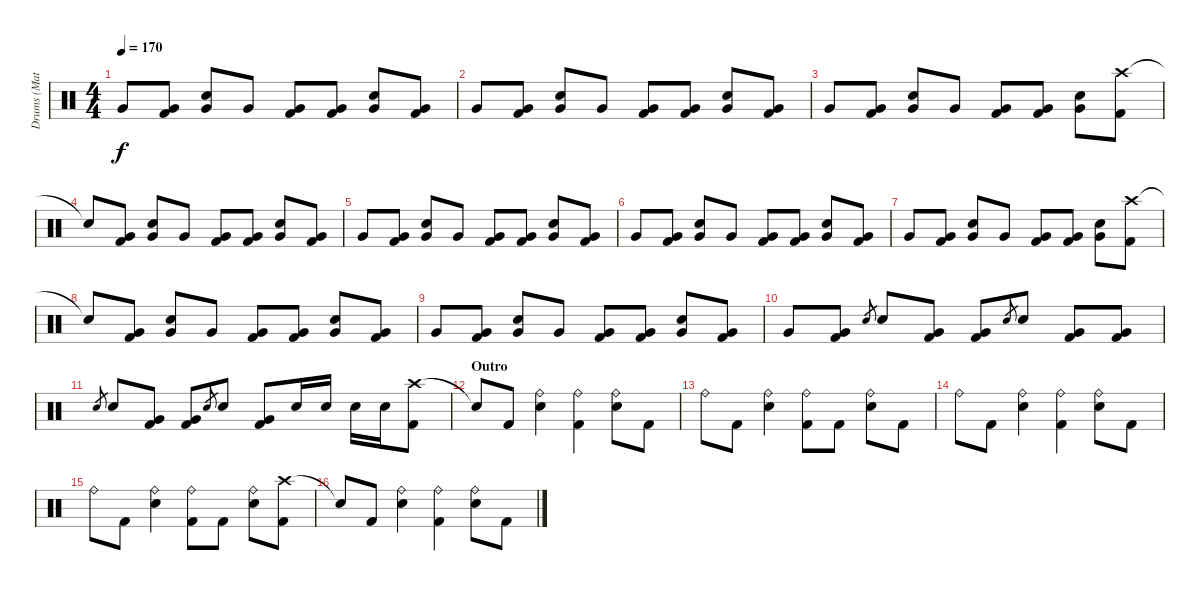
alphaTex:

\track ("Drums (Matt)" "Drums (Mat") {instrument percussion}
\staff {score}
\articulation defaults
\ts (4 4)
\tempo 170
\clef neutral
\ks c "Very Low Tom (hit)".8{dy f}
("Very Low Tom (hit)" "Kick (hit) 2").8 ("Very Low Tom (hit)" "Snare (hit) 2").8 "Very Low Tom (hit)".8 ("Very Low Tom (hit)" "Kick (hit) 2").8 ("Very Low Tom (hit)" "Kick (hit) 2").8 ("Very Low Tom (hit)" "Snare (hit) 2").8 ("Very Low Tom (hit)" "Kick (hit) 2").8 |
"Very Low Tom (hit)".8 ("Very Low Tom (hit)" "Kick (hit) 2").8 ("Very Low Tom (hit)" "Snare (hit) 2").8 "Very Low Tom (hit)".8 ("Very Low Tom (hit)" "Kick (hit) 2").8 ("Very Low Tom (hit)" "Kick (hit) 2").8 ("Very Low Tom (hit)" "Snare (hit) 2").8 ("Very Low Tom (hit)" "Kick (hit) 2").8 |
"Very Low Tom (hit)".8 ("Very Low Tom (hit)" "Kick (hit) 2").8 ("Very Low Tom (hit)" "Snare (hit) 2").8 "Very Low Tom (hit)".8 ("Very Low Tom (hit)" "Kick (hit) 2").8 ("Very Low Tom (hit)" "Kick (hit) 2").8 ("Very Low Tom (hit)" "Snare (hit) 2").8 ("Crash high (hit)" "Kick (hit) 2").8 |
"Snare (hit)"{t}.8 ("Very Low Tom (hit)" "Kick (hit) 2").8 ("Very Low Tom (hit)" "Snare (hit) 2").8 "Very Low Tom (hit)".8 ("Very Low Tom (hit)" "Kick (hit) 2").8 ("Very Low Tom (hit)" "Kick (hit) 2").8 ("Very Low Tom (hit)" "Snare (hit) 2").8 ("Very Low Tom (hit)" "Kick (hit) 2").8 |
"Very Low Tom (hit)".8 ("Very Low Tom (hit)" "Kick (hit) 2").8 ("Very Low Tom (hit)" "Snare (hit) 2").8 "Very Low Tom (hit)".8 ("Very Low Tom (hit)" "Kick (hit) 2").8 ("Very Low Tom (hit)" "Kick (hit) 2").8 ("Very Low Tom (hit)" "Snare (hit) 2").8 ("Very Low Tom (hit)" "Kick (hit) 2").8 |
"Very Low Tom (hit)".8 ("Very Low Tom (hit)" "Kick (hit) 2").8 ("Very Low Tom (hit)" "Snare (hit) 2").8 "Very Low Tom (hit)".8 ("Very Low Tom (hit)" "Kick (hit) 2").8 ("Very Low Tom (hit)" "Kick (hit) 2").8 ("Very Low Tom (hit)" "Snare (hit) 2").8 ("Very Low Tom (hit)" "Kick (hit) 2").8 |
"Very Low Tom (hit)".8 ("Very Low Tom (hit)" "Kick (hit) 2").8 ("Very Low Tom (hit)" "Snare (hit) 2").8 "Very Low Tom (hit)".8 ("Very Low Tom (hit)" "Kick (hit) 2").8 ("Very Low Tom (hit)" "Kick (hit) 2").8 ("Very Low Tom (hit)" "Snare (hit) 2").8 ("Crash high (hit)" "Kick (hit) 2").8 |
"Snare (hit)"{t}.8 ("Very Low Tom (hit)" "Kick (hit) 2").8 ("Very Low Tom (hit)" "Snare (hit) 2").8 "Very Low Tom (hit)".8 ("Very Low Tom (hit)" "Kick (hit) 2").8 ("Very Low Tom (hit)" "Kick (hit) 2").8 ("Very Low Tom (hit)" "Snare (hit) 2").8 ("Very Low Tom (hit)" "Kick (hit) 2").8 |
"Very Low Tom (hit)".8 ("Very Low Tom (hit)" "Kick (hit) 2").8 ("Very Low Tom (hit)" "Snare (hit) 2").8 "Very Low Tom (hit)".8 ("Very Low Tom (hit)" "Kick (hit) 2").8 ("Very Low Tom (hit)" "Kick (hit) 2").8 ("Very Low Tom (hit)" "Snare (hit) 2").8 ("Very Low Tom (hit)" "Kick (hit) 2").8 |
"Very Low Tom (hit)".8 ("Very Low Tom (hit)" "Kick (hit) 2").8 "Snare (hit) 2".8{gr} "Snare (hit) 2".8 ("Very Low Tom (hit)" "Kick (hit) 2").8 ("Very Low Tom (hit)" "Kick (hit) 2").8 "Snare (hit) 2".8{gr} "Snare (hit) 2".8 ("Very Low Tom (hit)" "Kick (hit) 2").8 ("Very Low Tom (hit)" "Kick (hit) 2").8 |
"Snare (hit) 2".8{gr} "Snare (hit) 2".8 ("Very Low Tom (hit)" "Kick (hit) 2").8 ("Very Low Tom (hit)" "Kick (hit) 2").8 "Snare (hit) 2".8{gr} "Snare (hit) 2".8 ("Very Low Tom (hit)" "Kick (hit) 2").8 "Snare (hit) 2".16 "Snare (hit) 2".16 "Snare (hit) 2".16 "Snare (hit) 2".16 ("Crash high (hit)" "Kick (hit) 2").8 |
\section ("" "Outro")
"Snare (hit)"{t}.8 "Kick (hit) 2".8 ("Ride (bell)" "Snare (hit) 2").4 ("Ride (bell)" "Kick (hit) 2").4 ("Ride (bell)" "Snare (hit) 2").8 "Kick (hit) 2".8 |
"Ride (bell)".8 "Kick (hit) 2".8 ("Ride (bell)" "Snare (hit) 2").4 ("Ride (bell)" "Kick (hit) 2").8 "Kick (hit) 2".8 ("Ride (bell)" "Snare (hit) 2").8 "Kick (hit) 2".8 |
"Ride (bell)".8 "Kick (hit) 2".8 ("Ride (bell)" "Snare (hit) 2").4 ("Ride (bell)" "Kick (hit) 2").4 ("Ride (bell)" "Snare (hit) 2").8 "Kick (hit) 2".8 |
"Ride (bell)".8 "Kick (hit) 2".8 ("Ride (bell)" "Snare (hit) 2").4 ("Ride (bell)" "Kick (hit) 2").8 "Kick (hit) 2".8 ("Ride (bell)" "Snare (hit) 2").8 ("Crash high (hit)" "Kick (hit) 2").8 |
"Snare (hit)"{t}.8 "Kick (hit) 2".8 ("Ride (bell)" "Snare (hit) 2").4 ("Ride (bell)" "Kick (hit) 2").4 ("Ride (bell)" "Snare (hit) 2").8 "Kick (hit) 2".8
